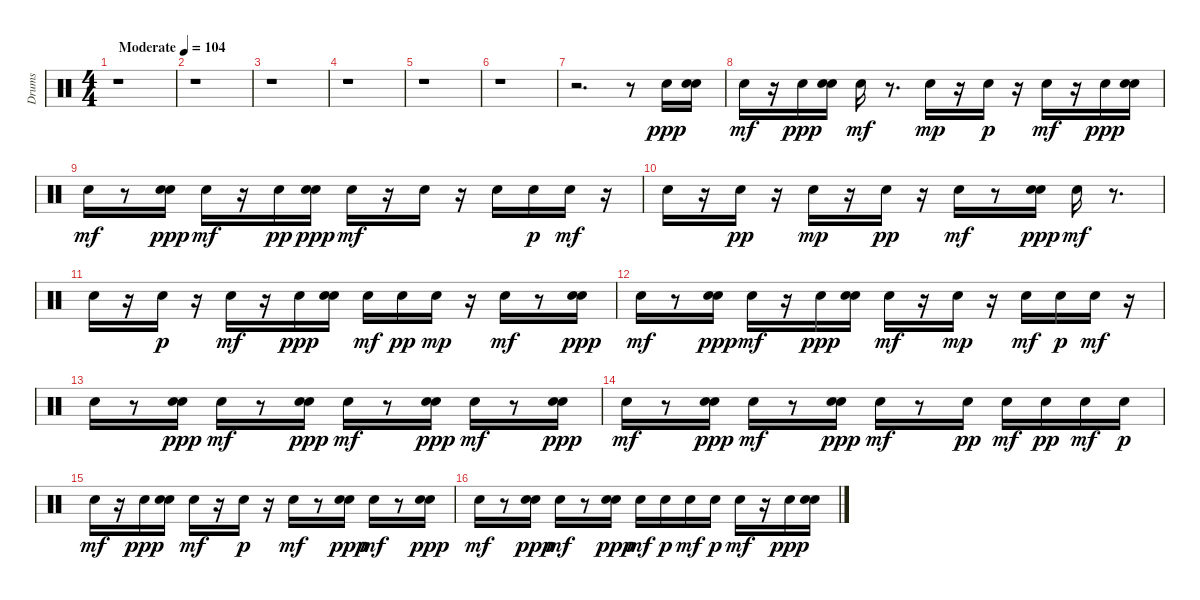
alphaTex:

\track ("Drums" "Drums") {instrument percussion}
\staff {score}
\articulation defaults
\ts (4 4)
\tempo (104 "Moderate")
\clef neutral
\ks c
r.1{dy ppp} |
r.1 |
r.1 |
r.1 |
r.1 |
r.1 |
r.2{d} r.8 "Snare (hit) 2".16 ("Snare (hit) 2" "Snare (hit) 2").16 |
"Snare (hit) 2".16{dy mf} r.16 "Snare (hit) 2".16{dy ppp} ("Snare (hit) 2" "Snare (hit) 2").16 "Snare (hit) 2".16{dy mf} r.8{d} "Snare (hit) 2".16{dy mp} r.16 "Snare (hit) 2".16{dy p} r.16 "Snare (hit) 2".16{dy mf} r.16 "Snare (hit) 2".16{dy ppp} ("Snare (hit) 2" "Snare (hit) 2").16 |
"Snare (hit) 2".16{dy mf} r.8 ("Snare (hit) 2" "Snare (hit) 2").16{dy ppp} "Snare (hit) 2".16{dy mf} r.16 "Snare (hit) 2".16{dy pp} ("Snare (hit) 2" "Snare (hit) 2").16{dy ppp} "Snare (hit) 2".16{dy mf} r.16 "Snare (hit) 2".16 r.16 "Snare (hit) 2".16 "Snare (hit) 2".16{dy p} "Snare (hit) 2".16{dy mf} r.16 |
"Snare (hit) 2".16 r.16 "Snare (hit) 2".16{dy pp} r.16 "Snare (hit) 2".16{dy mp} r.16 "Snare (hit) 2".16{dy pp} r.16 "Snare (hit) 2".16{dy mf} r.8 ("Snare (hit) 2" "Snare (hit) 2").16{dy ppp} "Snare (hit) 2".16{dy mf} r.8{d} |
"Snare (hit) 2".16 r.16 "Snare (hit) 2".16{dy p} r.16 "Snare (hit) 2".16{dy mf} r.16 "Snare (hit) 2".16{dy ppp} ("Snare (hit) 2" "Snare (hit) 2").16 "Snare (hit) 2".16{dy mf} "Snare (hit) 2".16{dy pp} "Snare (hit) 2".16{dy mp} r.16 "Snare (hit) 2".16{dy mf} r.8 ("Snare (hit) 2" "Snare (hit) 2").16{dy ppp} |
"Snare (hit) 2".16{dy mf} r.8 ("Snare (hit) 2" "Snare (hit) 2").16{dy ppp} "Snare (hit) 2".16{dy mf} r.16 "Snare (hit) 2".16{dy ppp} ("Snare (hit) 2" "Snare (hit) 2").16 "Snare (hit) 2".16{dy mf} r.16 "Snare (hit) 2".16{dy mp} r.16 "Snare (hit) 2".16{dy mf} "Snare (hit) 2".16{dy p} "Snare (hit) 2".16{dy mf} r.16 |
"Snare (hit) 2".16 r.8 ("Snare (hit) 2" "Snare (hit) 2").16{dy ppp} "Snare (hit) 2".16{dy mf} r.8 ("Snare (hit) 2" "Snare (hit) 2").16{dy ppp} "Snare (hit) 2".16{dy mf} r.8 ("Snare (hit) 2" "Snare (hit) 2").16{dy ppp} "Snare (hit) 2".16{dy mf} r.8 ("Snare (hit) 2" "Snare (hit) 2").16{dy ppp} |
"Snare (hit) 2".16{dy mf} r.8 ("Snare (hit) 2" "Snare (hit) 2").16{dy ppp} "Snare (hit) 2".16{dy mf} r.8 ("Snare (hit) 2" "Snare (hit) 2").16{dy ppp} "Snare (hit) 2".16{dy mf} r.8 "Snare (hit) 2".16{dy pp} "Snare (hit) 2".16{dy mf} "Snare (hit) 2".16{dy pp} "Snare (hit) 2".16{dy mf} "Snare (hit) 2".16{dy p} |
"Snare (hit) 2".16{dy mf} r.16 "Snare (hit) 2".16{dy ppp} ("Snare (hit) 2" "Snare (hit) 2").16 "Snare (hit) 2".16{dy mf} r.16 "Snare (hit) 2".16{dy p} r.16 "Snare (hit) 2".16{dy mf} r.8 ("Snare (hit) 2" "Snare (hit) 2").16{dy ppp} "Snare (hit) 2".16{dy mf} r.8 ("Snare (hit) 2" "Snare (hit) 2").16{dy ppp} |
"Snare (hit) 2".16{dy mf} r.8 ("Snare (hit) 2" "Snare (hit) 2").16{dy ppp} "Snare (hit) 2".16{dy mf} r.8 ("Snare (hit) 2" "Snare (hit) 2").16{dy ppp} "Snare (hit) 2".16{dy mf} "Snare (hit) 2".16{dy p} "Snare (hit) 2".16{dy mf} "Snare (hit) 2".16{dy p} "Snare (hit) 2".16{dy mf} r.16 "Snare (hit) 2".16{dy ppp} ("Snare (hit) 2" "Snare (hit) 2").16
